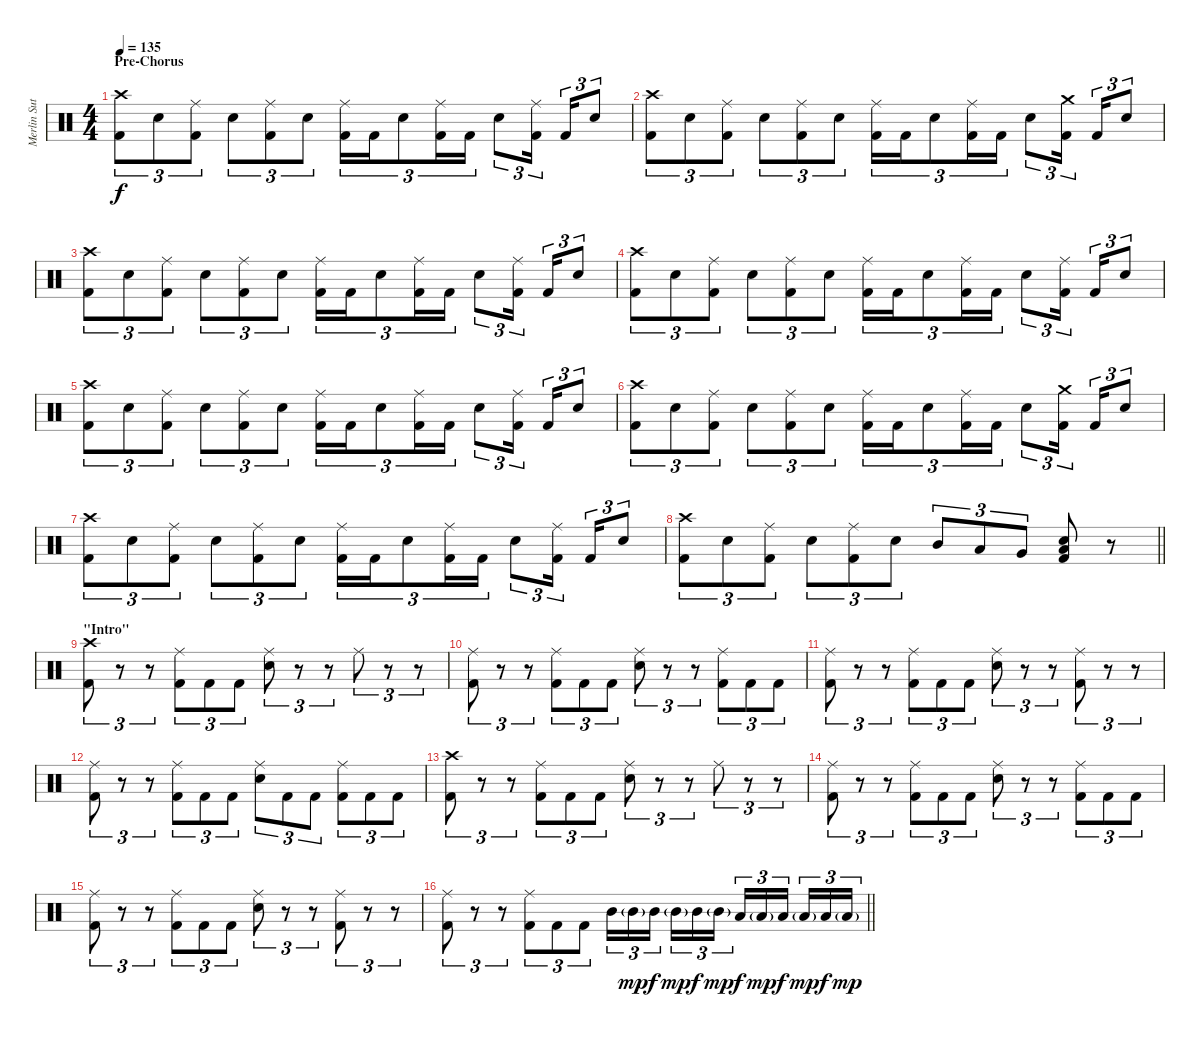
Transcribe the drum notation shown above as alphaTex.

\track ("Merlin Sutter" "Merlin Sut") {instrument percussion}
\staff {score}
\articulation defaults
\ts (4 4)
\section ("" "Pre-Chorus")
\tempo 135
\clef neutral
\ks c
("Crash high (hit)" "Kick (hit) 2").8{tu (3 2) dy f} "Snare (hit) 2".8{tu (3 2)} ("Ride (middle)" "Kick (hit) 2").8{tu (3 2)} "Snare (hit) 2".8{tu (3 2)} ("Ride (middle)" "Kick (hit) 2").8{tu (3 2)} "Snare (hit) 2".8{tu (3 2)} ("Ride (middle)" "Kick (hit) 2").16{tu (3 2)} "Kick (hit) 2".16{tu (3 2)} "Snare (hit) 2".8{tu (3 2)} ("Ride (middle)" "Kick (hit) 2").16{tu (3 2)} "Kick (hit) 2".16{tu (3 2)} "Snare (hit) 2".8{tu (3 2)} ("Ride (middle)" "Kick (hit) 2").16{tu (3 2) beam splitsecondary} "Kick (hit) 2".16{tu (3 2)} "Snare (hit) 2".8{tu (3 2)} |
("Crash high (hit)" "Kick (hit) 2").8{tu (3 2)} "Snare (hit) 2".8{tu (3 2)} ("Ride (middle)" "Kick (hit) 2").8{tu (3 2)} "Snare (hit) 2".8{tu (3 2)} ("Ride (middle)" "Kick (hit) 2").8{tu (3 2)} "Snare (hit) 2".8{tu (3 2)} ("Ride (middle)" "Kick (hit) 2").16{tu (3 2)} "Kick (hit) 2".16{tu (3 2)} "Snare (hit) 2".8{tu (3 2)} ("Ride (middle)" "Kick (hit) 2").16{tu (3 2)} "Kick (hit) 2".16{tu (3 2)} "Snare (hit) 2".8{tu (3 2)} ("Crash medium (hit)" "Kick (hit) 2").16{tu (3 2) beam splitsecondary} "Kick (hit) 2".16{tu (3 2)} "Snare (hit) 2".8{tu (3 2)} |
("Crash high (hit)" "Kick (hit) 2").8{tu (3 2)} "Snare (hit) 2".8{tu (3 2)} ("Ride (middle)" "Kick (hit) 2").8{tu (3 2)} "Snare (hit) 2".8{tu (3 2)} ("Ride (middle)" "Kick (hit) 2").8{tu (3 2)} "Snare (hit) 2".8{tu (3 2)} ("Ride (middle)" "Kick (hit) 2").16{tu (3 2)} "Kick (hit) 2".16{tu (3 2)} "Snare (hit) 2".8{tu (3 2)} ("Ride (middle)" "Kick (hit) 2").16{tu (3 2)} "Kick (hit) 2".16{tu (3 2)} "Snare (hit) 2".8{tu (3 2)} ("Ride (middle)" "Kick (hit) 2").16{tu (3 2) beam splitsecondary} "Kick (hit) 2".16{tu (3 2)} "Snare (hit) 2".8{tu (3 2)} |
("Crash high (hit)" "Kick (hit) 2").8{tu (3 2)} "Snare (hit) 2".8{tu (3 2)} ("Ride (middle)" "Kick (hit) 2").8{tu (3 2)} "Snare (hit) 2".8{tu (3 2)} ("Ride (middle)" "Kick (hit) 2").8{tu (3 2)} "Snare (hit) 2".8{tu (3 2)} ("Ride (middle)" "Kick (hit) 2").16{tu (3 2)} "Kick (hit) 2".16{tu (3 2)} "Snare (hit) 2".8{tu (3 2)} ("Ride (middle)" "Kick (hit) 2").16{tu (3 2)} "Kick (hit) 2".16{tu (3 2)} "Snare (hit) 2".8{tu (3 2)} ("Ride (middle)" "Kick (hit) 2").16{tu (3 2) beam splitsecondary} "Kick (hit) 2".16{tu (3 2)} "Snare (hit) 2".8{tu (3 2)} |
("Crash high (hit)" "Kick (hit) 2").8{tu (3 2)} "Snare (hit) 2".8{tu (3 2)} ("Ride (middle)" "Kick (hit) 2").8{tu (3 2)} "Snare (hit) 2".8{tu (3 2)} ("Ride (middle)" "Kick (hit) 2").8{tu (3 2)} "Snare (hit) 2".8{tu (3 2)} ("Ride (middle)" "Kick (hit) 2").16{tu (3 2)} "Kick (hit) 2".16{tu (3 2)} "Snare (hit) 2".8{tu (3 2)} ("Ride (middle)" "Kick (hit) 2").16{tu (3 2)} "Kick (hit) 2".16{tu (3 2)} "Snare (hit) 2".8{tu (3 2)} ("Ride (middle)" "Kick (hit) 2").16{tu (3 2) beam splitsecondary} "Kick (hit) 2".16{tu (3 2)} "Snare (hit) 2".8{tu (3 2)} |
("Crash high (hit)" "Kick (hit) 2").8{tu (3 2)} "Snare (hit) 2".8{tu (3 2)} ("Ride (middle)" "Kick (hit) 2").8{tu (3 2)} "Snare (hit) 2".8{tu (3 2)} ("Ride (middle)" "Kick (hit) 2").8{tu (3 2)} "Snare (hit) 2".8{tu (3 2)} ("Ride (middle)" "Kick (hit) 2").16{tu (3 2)} "Kick (hit) 2".16{tu (3 2)} "Snare (hit) 2".8{tu (3 2)} ("Ride (middle)" "Kick (hit) 2").16{tu (3 2)} "Kick (hit) 2".16{tu (3 2)} "Snare (hit) 2".8{tu (3 2)} ("Crash medium (hit)" "Kick (hit) 2").16{tu (3 2) beam splitsecondary} "Kick (hit) 2".16{tu (3 2)} "Snare (hit) 2".8{tu (3 2)} |
("Crash high (hit)" "Kick (hit) 2").8{tu (3 2)} "Snare (hit) 2".8{tu (3 2)} ("Ride (middle)" "Kick (hit) 2").8{tu (3 2)} "Snare (hit) 2".8{tu (3 2)} ("Ride (middle)" "Kick (hit) 2").8{tu (3 2)} "Snare (hit) 2".8{tu (3 2)} ("Ride (middle)" "Kick (hit) 2").16{tu (3 2)} "Kick (hit) 2".16{tu (3 2)} "Snare (hit) 2".8{tu (3 2)} ("Ride (middle)" "Kick (hit) 2").16{tu (3 2)} "Kick (hit) 2".16{tu (3 2)} "Snare (hit) 2".8{tu (3 2)} ("Ride (middle)" "Kick (hit) 2").16{tu (3 2) beam splitsecondary} "Kick (hit) 2".16{tu (3 2)} "Snare (hit) 2".8{tu (3 2)} |
\barLineRight lightlight
("Crash high (hit)" "Kick (hit) 2").8{tu (3 2)} "Snare (hit) 2".8{tu (3 2)} ("Ride (middle)" "Kick (hit) 2").8{tu (3 2)} "Snare (hit) 2".8{tu (3 2)} ("Ride (middle)" "Kick (hit) 2").8{tu (3 2)} "Snare (hit) 2".8{tu (3 2)} "Mid Tom (hit)".8{tu (3 2)} "Low Tom (hit)".8{tu (3 2)} "Very Low Tom (hit)".8{tu (3 2)} ("Low Floor Tom (hit)" "Snare (hit) 2" "Kick (hit) 2").8 r.8 |
\section ("" "\"Intro\"")
("Crash high (hit)" "Kick (hit) 2").8{tu (3 2)} r.8{tu (3 2)} r.8{tu (3 2)} ("Ride (middle)" "Kick (hit) 2").8{tu (3 2)} "Kick (hit) 2".8{tu (3 2)} "Kick (hit) 2".8{tu (3 2)} ("Ride (middle)" "Snare (hit) 2").8{tu (3 2)} r.8{tu (3 2)} r.8{tu (3 2)} "Ride (middle)".8{tu (3 2)} r.8{tu (3 2)} r.8{tu (3 2)} |
("Ride (middle)" "Kick (hit) 2").8{tu (3 2)} r.8{tu (3 2)} r.8{tu (3 2)} ("Ride (middle)" "Kick (hit) 2").8{tu (3 2)} "Kick (hit) 2".8{tu (3 2)} "Kick (hit) 2".8{tu (3 2)} ("Ride (middle)" "Snare (hit) 2").8{tu (3 2)} r.8{tu (3 2)} r.8{tu (3 2)} ("Ride (middle)" "Kick (hit) 2").8{tu (3 2)} "Kick (hit) 2".8{tu (3 2)} "Kick (hit) 2".8{tu (3 2)} |
("Ride (middle)" "Kick (hit) 2").8{tu (3 2)} r.8{tu (3 2)} r.8{tu (3 2)} ("Ride (middle)" "Kick (hit) 2").8{tu (3 2)} "Kick (hit) 2".8{tu (3 2)} "Kick (hit) 2".8{tu (3 2)} ("Ride (middle)" "Snare (hit) 2").8{tu (3 2)} r.8{tu (3 2)} r.8{tu (3 2)} ("Ride (middle)" "Kick (hit) 2").8{tu (3 2)} r.8{tu (3 2)} r.8{tu (3 2)} |
("Ride (middle)" "Kick (hit) 2").8{tu (3 2)} r.8{tu (3 2)} r.8{tu (3 2)} ("Ride (middle)" "Kick (hit) 2").8{tu (3 2)} "Kick (hit) 2".8{tu (3 2)} "Kick (hit) 2".8{tu (3 2)} ("Ride (middle)" "Snare (hit) 2").8{tu (3 2)} "Kick (hit) 2".8{tu (3 2)} "Kick (hit) 2".8{tu (3 2)} ("Ride (middle)" "Kick (hit) 2").8{tu (3 2)} "Kick (hit) 2".8{tu (3 2)} "Kick (hit) 2".8{tu (3 2)} |
("Crash high (hit)" "Kick (hit) 2").8{tu (3 2)} r.8{tu (3 2)} r.8{tu (3 2)} ("Ride (middle)" "Kick (hit) 2").8{tu (3 2)} "Kick (hit) 2".8{tu (3 2)} "Kick (hit) 2".8{tu (3 2)} ("Ride (middle)" "Snare (hit) 2").8{tu (3 2)} r.8{tu (3 2)} r.8{tu (3 2)} "Ride (middle)".8{tu (3 2)} r.8{tu (3 2)} r.8{tu (3 2)} |
("Ride (middle)" "Kick (hit) 2").8{tu (3 2)} r.8{tu (3 2)} r.8{tu (3 2)} ("Ride (middle)" "Kick (hit) 2").8{tu (3 2)} "Kick (hit) 2".8{tu (3 2)} "Kick (hit) 2".8{tu (3 2)} ("Ride (middle)" "Snare (hit) 2").8{tu (3 2)} r.8{tu (3 2)} r.8{tu (3 2)} ("Ride (middle)" "Kick (hit) 2").8{tu (3 2)} "Kick (hit) 2".8{tu (3 2)} "Kick (hit) 2".8{tu (3 2)} |
("Ride (middle)" "Kick (hit) 2").8{tu (3 2)} r.8{tu (3 2)} r.8{tu (3 2)} ("Ride (middle)" "Kick (hit) 2").8{tu (3 2)} "Kick (hit) 2".8{tu (3 2)} "Kick (hit) 2".8{tu (3 2)} ("Ride (middle)" "Snare (hit) 2").8{tu (3 2)} r.8{tu (3 2)} r.8{tu (3 2)} ("Ride (middle)" "Kick (hit) 2").8{tu (3 2)} r.8{tu (3 2)} r.8{tu (3 2)} |
\barLineRight lightlight
("Ride (middle)" "Kick (hit) 2").8{tu (3 2)} r.8{tu (3 2)} r.8{tu (3 2)} ("Ride (middle)" "Kick (hit) 2").8{tu (3 2)} "Kick (hit) 2".8{tu (3 2)} "Kick (hit) 2".8{tu (3 2)} "Mid Tom (hit)".16{tu (3 2)} "Mid Tom (hit)"{g}.16{tu (3 2) dy mp} "Mid Tom (hit)".16{tu (3 2) dy f beam splitsecondary} "Mid Tom (hit)"{g}.16{tu (3 2) dy mp} "Mid Tom (hit)".16{tu (3 2) dy f} "Mid Tom (hit)"{g}.16{tu (3 2) dy mp} "Low Tom (hit)".16{tu (3 2) dy f} "Low Tom (hit)"{g}.16{tu (3 2) dy mp} "Low Tom (hit)".16{tu (3 2) dy f beam splitsecondary} "Low Tom (hit)"{g}.16{tu (3 2) dy mp} "Low Tom (hit)".16{tu (3 2) dy f} "Low Tom (hit)"{g}.16{tu (3 2) dy mp}
